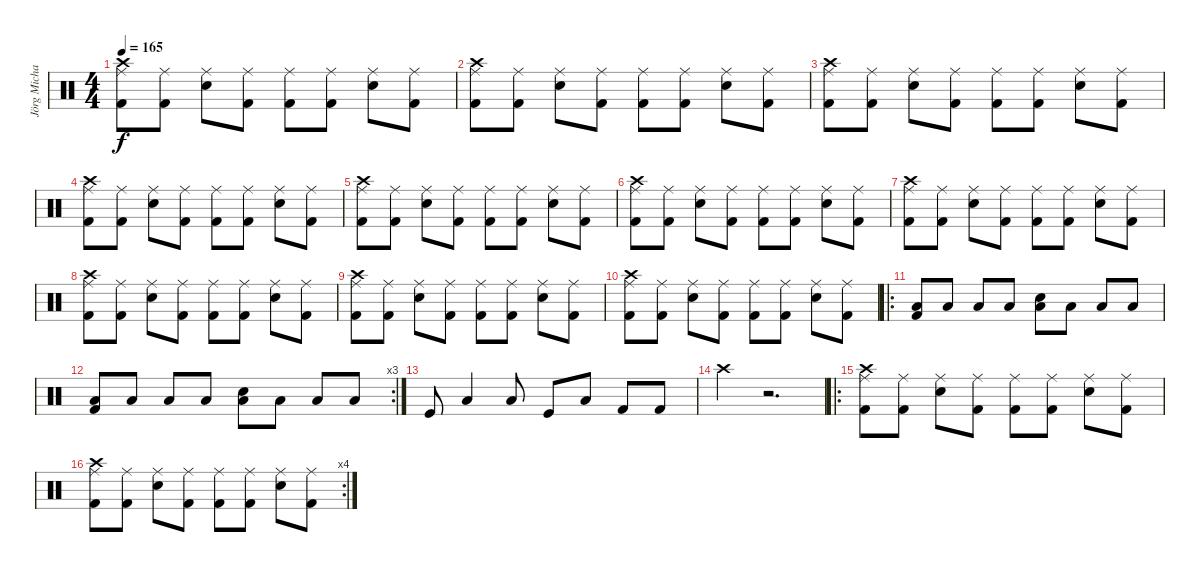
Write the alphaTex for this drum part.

\track ("Jörg Michael" "Jörg Micha") {instrument percussion}
\staff {score}
\articulation defaults
\ts (4 4)
\tempo 165
\clef neutral
\ks c
("Kick (hit) 2" "Ride (middle)" "Crash high (hit)").8{dy f} ("Kick (hit) 2" "Ride (middle)").8 ("Snare (hit) 2" "Ride (middle)").8 ("Kick (hit) 2" "Ride (middle)").8 ("Kick (hit) 2" "Ride (middle)").8 ("Kick (hit) 2" "Ride (middle)").8 ("Snare (hit) 2" "Ride (middle)").8 ("Kick (hit) 2" "Ride (middle)").8 |
("Kick (hit) 2" "Ride (middle)" "Crash high (hit)").8 ("Kick (hit) 2" "Ride (middle)").8 ("Snare (hit) 2" "Ride (middle)").8 ("Kick (hit) 2" "Ride (middle)").8 ("Kick (hit) 2" "Ride (middle)").8 ("Kick (hit) 2" "Ride (middle)").8 ("Snare (hit) 2" "Ride (middle)").8 ("Kick (hit) 2" "Ride (middle)").8 |
("Kick (hit) 2" "Ride (middle)" "Crash high (hit)").8 ("Kick (hit) 2" "Ride (middle)").8 ("Snare (hit) 2" "Ride (middle)").8 ("Kick (hit) 2" "Ride (middle)").8 ("Kick (hit) 2" "Ride (middle)").8 ("Kick (hit) 2" "Ride (middle)").8 ("Snare (hit) 2" "Ride (middle)").8 ("Kick (hit) 2" "Ride (middle)").8 |
("Kick (hit) 2" "Ride (middle)" "Crash high (hit)").8 ("Kick (hit) 2" "Ride (middle)").8 ("Snare (hit) 2" "Ride (middle)").8 ("Kick (hit) 2" "Ride (middle)").8 ("Kick (hit) 2" "Ride (middle)").8 ("Kick (hit) 2" "Ride (middle)").8 ("Snare (hit) 2" "Ride (middle)").8 ("Kick (hit) 2" "Ride (middle)").8 |
("Kick (hit) 2" "Ride (middle)" "Crash high (hit)").8 ("Kick (hit) 2" "Ride (middle)").8 ("Snare (hit) 2" "Ride (middle)").8 ("Kick (hit) 2" "Ride (middle)").8 ("Kick (hit) 2" "Ride (middle)").8 ("Kick (hit) 2" "Ride (middle)").8 ("Snare (hit) 2" "Ride (middle)").8 ("Kick (hit) 2" "Ride (middle)").8 |
("Kick (hit) 2" "Ride (middle)" "Crash high (hit)").8 ("Kick (hit) 2" "Ride (middle)").8 ("Snare (hit) 2" "Ride (middle)").8 ("Kick (hit) 2" "Ride (middle)").8 ("Kick (hit) 2" "Ride (middle)").8 ("Kick (hit) 2" "Ride (middle)").8 ("Snare (hit) 2" "Ride (middle)").8 ("Kick (hit) 2" "Ride (middle)").8 |
("Kick (hit) 2" "Ride (middle)" "Crash high (hit)").8 ("Kick (hit) 2" "Ride (middle)").8 ("Snare (hit) 2" "Ride (middle)").8 ("Kick (hit) 2" "Ride (middle)").8 ("Kick (hit) 2" "Ride (middle)").8 ("Kick (hit) 2" "Ride (middle)").8 ("Snare (hit) 2" "Ride (middle)").8 ("Kick (hit) 2" "Ride (middle)").8 |
("Kick (hit) 2" "Ride (middle)" "Crash high (hit)").8 ("Kick (hit) 2" "Ride (middle)").8 ("Snare (hit) 2" "Ride (middle)").8 ("Kick (hit) 2" "Ride (middle)").8 ("Kick (hit) 2" "Ride (middle)").8 ("Kick (hit) 2" "Ride (middle)").8 ("Snare (hit) 2" "Ride (middle)").8 ("Kick (hit) 2" "Ride (middle)").8 |
("Kick (hit) 2" "Ride (middle)" "Crash high (hit)").8 ("Kick (hit) 2" "Ride (middle)").8 ("Snare (hit) 2" "Ride (middle)").8 ("Kick (hit) 2" "Ride (middle)").8 ("Kick (hit) 2" "Ride (middle)").8 ("Kick (hit) 2" "Ride (middle)").8 ("Snare (hit) 2" "Ride (middle)").8 ("Kick (hit) 2" "Ride (middle)").8 |
("Kick (hit) 2" "Ride (middle)" "Crash high (hit)").8 ("Kick (hit) 2" "Ride (middle)").8 ("Snare (hit) 2" "Ride (middle)").8 ("Kick (hit) 2" "Ride (middle)").8 ("Kick (hit) 2" "Ride (middle)").8 ("Kick (hit) 2" "Ride (middle)").8 ("Snare (hit) 2" "Ride (middle)").8 ("Kick (hit) 2" "Ride (middle)").8 |
\ro
("Low Floor Tom (hit)" "Kick (hit) 2").8 "Low Floor Tom (hit)".8 "Low Floor Tom (hit)".8 "Low Floor Tom (hit)".8 ("Low Floor Tom (hit)" "Snare (hit) 2").8 "Low Floor Tom (hit)".8 "Low Floor Tom (hit)".8 "Low Floor Tom (hit)".8 |
\rc 3
("Low Floor Tom (hit)" "Kick (hit) 2").8 "Low Floor Tom (hit)".8 "Low Floor Tom (hit)".8 "Low Floor Tom (hit)".8 ("Low Floor Tom (hit)" "Snare (hit) 2").8 "Low Floor Tom (hit)".8 "Low Floor Tom (hit)".8 "Low Floor Tom (hit)".8 |
"Kick (hit)".8 "Low Floor Tom (hit)".4 "Low Floor Tom (hit)".8 "Kick (hit)".8 "Low Floor Tom (hit)".8 "Kick (hit) 2".8 "Kick (hit) 2".8 |
"Crash high (hit)".4 r.2{d} |
\ro
("Kick (hit) 2" "Ride (middle)" "Crash high (hit)").8 ("Kick (hit) 2" "Ride (middle)").8 ("Snare (hit) 2" "Ride (middle)").8 ("Kick (hit) 2" "Ride (middle)").8 ("Kick (hit) 2" "Ride (middle)").8 ("Kick (hit) 2" "Ride (middle)").8 ("Snare (hit) 2" "Ride (middle)").8 ("Kick (hit) 2" "Ride (middle)").8 |
\rc 4
("Kick (hit) 2" "Ride (middle)" "Crash high (hit)").8 ("Kick (hit) 2" "Ride (middle)").8 ("Snare (hit) 2" "Ride (middle)").8 ("Kick (hit) 2" "Ride (middle)").8 ("Kick (hit) 2" "Ride (middle)").8 ("Kick (hit) 2" "Ride (middle)").8 ("Snare (hit) 2" "Ride (middle)").8 ("Kick (hit) 2" "Ride (middle)").8
